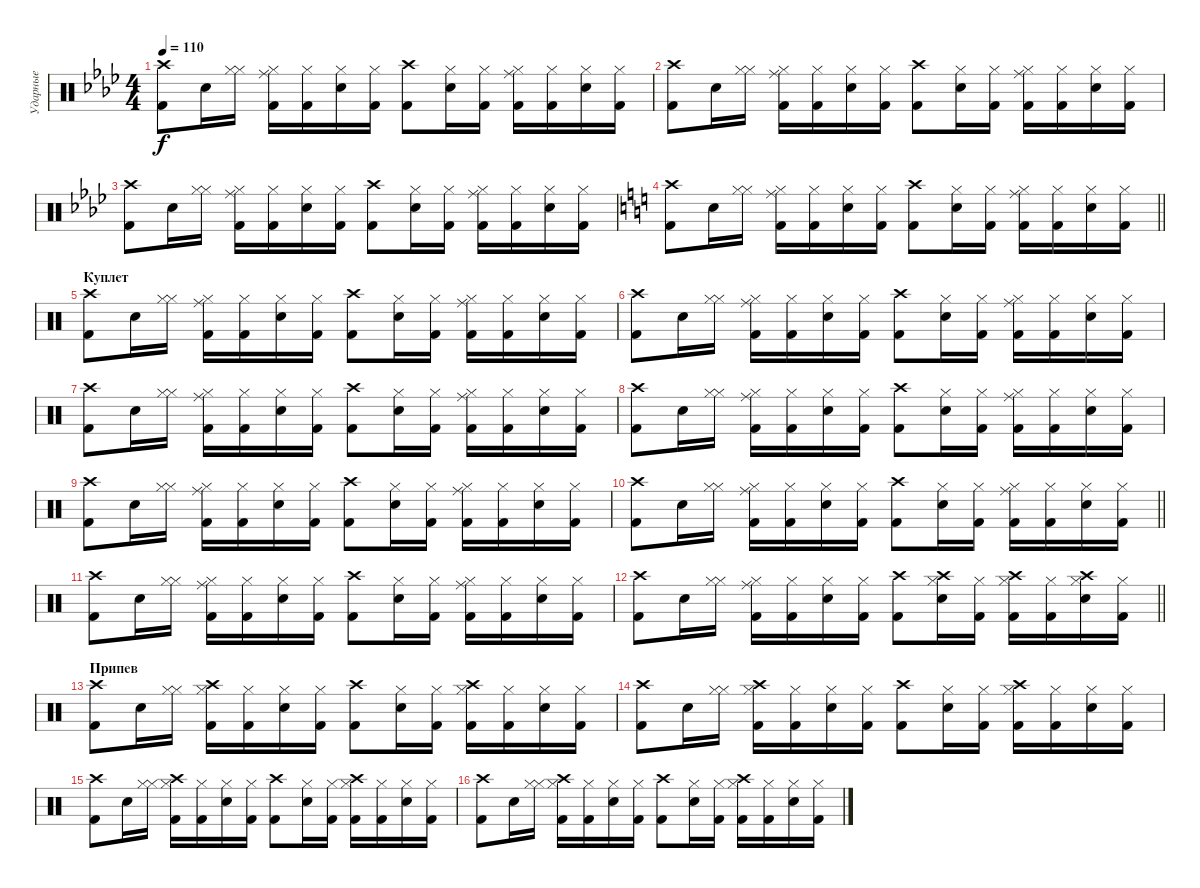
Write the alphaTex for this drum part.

\track ("Ударные" "Ударные") {instrument percussion}
\staff {score}
\articulation defaults
\ts (4 4)
\tempo 110
\clef neutral
\ks fminor
("Crash high (hit)" "Kick (hit) 2").8{dy f} "Snare (hit) 2".16 ("Hi-Hat (closed)" "Hi-Hat (closed)").16 ("Ride (middle)" "Hi-Hat (closed)" "Kick (hit) 2").16 ("Hi-Hat (closed)" "Kick (hit) 2").16 ("Hi-Hat (closed)" "Electric Snare (hit)").16 ("Hi-Hat (closed)" "Kick (hit) 2").16 ("Crash high (hit)" "Kick (hit) 2").8 ("Hi-Hat (closed)" "Snare (hit) 2").16 ("Hi-Hat (closed)" "Kick (hit) 2").16 ("Ride (middle)" "Hi-Hat (closed)" "Kick (hit) 2").16 ("Hi-Hat (closed)" "Kick (hit) 2").16 ("Hi-Hat (closed)" "Snare (hit) 2").16 ("Hi-Hat (closed)" "Kick (hit) 2").16 |
("Crash high (hit)" "Kick (hit) 2").8 "Snare (hit) 2".16 ("Hi-Hat (closed)" "Hi-Hat (closed)").16 ("Ride (middle)" "Hi-Hat (closed)" "Kick (hit) 2").16 ("Hi-Hat (closed)" "Kick (hit) 2").16 ("Hi-Hat (closed)" "Snare (hit) 2").16 ("Hi-Hat (closed)" "Kick (hit) 2").16 ("Crash high (hit)" "Kick (hit) 2").8 ("Hi-Hat (closed)" "Snare (hit) 2").16 ("Hi-Hat (closed)" "Kick (hit) 2").16 ("Ride (middle)" "Hi-Hat (closed)" "Kick (hit) 2").16 ("Hi-Hat (closed)" "Kick (hit) 2").16 ("Hi-Hat (closed)" "Snare (hit) 2").16 ("Hi-Hat (closed)" "Kick (hit) 2").16 |
("Crash high (hit)" "Kick (hit) 2").8 "Snare (hit) 2".16 ("Hi-Hat (closed)" "Hi-Hat (closed)").16 ("Ride (middle)" "Hi-Hat (closed)" "Kick (hit) 2").16 ("Hi-Hat (closed)" "Kick (hit) 2").16 ("Hi-Hat (closed)" "Snare (hit) 2").16 ("Hi-Hat (closed)" "Kick (hit) 2").16 ("Crash high (hit)" "Kick (hit) 2").8 ("Hi-Hat (closed)" "Snare (hit) 2").16 ("Hi-Hat (closed)" "Kick (hit) 2").16 ("Ride (middle)" "Hi-Hat (closed)" "Kick (hit) 2").16 ("Hi-Hat (closed)" "Kick (hit) 2").16 ("Hi-Hat (closed)" "Snare (hit) 2").16 ("Hi-Hat (closed)" "Kick (hit) 2").16 |
\barLineRight lightlight
\ks c
("Crash high (hit)" "Kick (hit) 2").8 "Snare (hit) 2".16 ("Hi-Hat (closed)" "Hi-Hat (closed)").16 ("Ride (middle)" "Hi-Hat (closed)" "Kick (hit) 2").16 ("Hi-Hat (closed)" "Kick (hit) 2").16 ("Hi-Hat (closed)" "Snare (hit) 2").16 ("Hi-Hat (closed)" "Kick (hit) 2").16 ("Crash high (hit)" "Kick (hit) 2").8 ("Hi-Hat (closed)" "Snare (hit) 2").16 ("Hi-Hat (closed)" "Kick (hit) 2").16 ("Ride (middle)" "Hi-Hat (closed)" "Kick (hit) 2").16 ("Hi-Hat (closed)" "Kick (hit) 2").16 ("Hi-Hat (closed)" "Snare (hit) 2").16 ("Hi-Hat (closed)" "Kick (hit) 2").16 |
\section ("" "Куплет")
("Crash high (hit)" "Kick (hit) 2").8 "Snare (hit) 2".16 ("Hi-Hat (closed)" "Hi-Hat (closed)").16 ("Ride (middle)" "Hi-Hat (closed)" "Kick (hit) 2").16 ("Hi-Hat (closed)" "Kick (hit) 2").16 ("Hi-Hat (closed)" "Snare (hit) 2").16 ("Hi-Hat (closed)" "Kick (hit) 2").16 ("Crash high (hit)" "Kick (hit) 2").8 ("Hi-Hat (closed)" "Snare (hit) 2").16 ("Hi-Hat (closed)" "Kick (hit) 2").16 ("Ride (middle)" "Hi-Hat (closed)" "Kick (hit) 2").16 ("Hi-Hat (closed)" "Kick (hit) 2").16 ("Hi-Hat (closed)" "Snare (hit) 2").16 ("Hi-Hat (closed)" "Kick (hit) 2").16 |
("Crash high (hit)" "Kick (hit) 2").8 "Snare (hit) 2".16 ("Hi-Hat (closed)" "Hi-Hat (closed)").16 ("Ride (middle)" "Hi-Hat (closed)" "Kick (hit) 2").16 ("Hi-Hat (closed)" "Kick (hit) 2").16 ("Hi-Hat (closed)" "Snare (hit) 2").16 ("Hi-Hat (closed)" "Kick (hit) 2").16 ("Crash high (hit)" "Kick (hit) 2").8 ("Hi-Hat (closed)" "Snare (hit) 2").16 ("Hi-Hat (closed)" "Kick (hit) 2").16 ("Ride (middle)" "Hi-Hat (closed)" "Kick (hit) 2").16 ("Hi-Hat (closed)" "Kick (hit) 2").16 ("Hi-Hat (closed)" "Snare (hit) 2").16 ("Hi-Hat (closed)" "Kick (hit) 2").16 |
("Crash high (hit)" "Kick (hit) 2").8 "Snare (hit) 2".16 ("Hi-Hat (closed)" "Hi-Hat (closed)").16 ("Ride (middle)" "Hi-Hat (closed)" "Kick (hit) 2").16 ("Hi-Hat (closed)" "Kick (hit) 2").16 ("Hi-Hat (closed)" "Snare (hit) 2").16 ("Hi-Hat (closed)" "Kick (hit) 2").16 ("Crash high (hit)" "Kick (hit) 2").8 ("Hi-Hat (closed)" "Snare (hit) 2").16 ("Hi-Hat (closed)" "Kick (hit) 2").16 ("Ride (middle)" "Hi-Hat (closed)" "Kick (hit) 2").16 ("Hi-Hat (closed)" "Kick (hit) 2").16 ("Hi-Hat (closed)" "Snare (hit) 2").16 ("Hi-Hat (closed)" "Kick (hit) 2").16 |
("Crash high (hit)" "Kick (hit) 2").8 "Snare (hit) 2".16 ("Hi-Hat (closed)" "Hi-Hat (closed)").16 ("Ride (middle)" "Hi-Hat (closed)" "Kick (hit) 2").16 ("Hi-Hat (closed)" "Kick (hit) 2").16 ("Hi-Hat (closed)" "Snare (hit) 2").16 ("Hi-Hat (closed)" "Kick (hit) 2").16 ("Crash high (hit)" "Kick (hit) 2").8 ("Hi-Hat (closed)" "Snare (hit) 2").16 ("Hi-Hat (closed)" "Kick (hit) 2").16 ("Ride (middle)" "Hi-Hat (closed)" "Kick (hit) 2").16 ("Hi-Hat (closed)" "Kick (hit) 2").16 ("Hi-Hat (closed)" "Snare (hit) 2").16 ("Hi-Hat (closed)" "Kick (hit) 2").16 |
("Crash high (hit)" "Kick (hit) 2").8 "Snare (hit) 2".16 ("Hi-Hat (closed)" "Hi-Hat (closed)").16 ("Ride (middle)" "Hi-Hat (closed)" "Kick (hit) 2").16 ("Hi-Hat (closed)" "Kick (hit) 2").16 ("Hi-Hat (closed)" "Snare (hit) 2").16 ("Hi-Hat (closed)" "Kick (hit) 2").16 ("Crash high (hit)" "Kick (hit) 2").8 ("Hi-Hat (closed)" "Snare (hit) 2").16 ("Hi-Hat (closed)" "Kick (hit) 2").16 ("Ride (middle)" "Hi-Hat (closed)" "Kick (hit) 2").16 ("Hi-Hat (closed)" "Kick (hit) 2").16 ("Hi-Hat (closed)" "Snare (hit) 2").16 ("Hi-Hat (closed)" "Kick (hit) 2").16 |
\barLineRight lightlight
("Crash high (hit)" "Kick (hit) 2").8 "Snare (hit) 2".16 ("Hi-Hat (closed)" "Hi-Hat (closed)").16 ("Ride (middle)" "Hi-Hat (closed)" "Kick (hit) 2").16 ("Hi-Hat (closed)" "Kick (hit) 2").16 ("Hi-Hat (closed)" "Snare (hit) 2").16 ("Hi-Hat (closed)" "Kick (hit) 2").16 ("Crash high (hit)" "Kick (hit) 2").8 ("Hi-Hat (closed)" "Snare (hit) 2").16 ("Hi-Hat (closed)" "Kick (hit) 2").16 ("Ride (middle)" "Hi-Hat (closed)" "Kick (hit) 2").16 ("Hi-Hat (closed)" "Kick (hit) 2").16 ("Hi-Hat (closed)" "Snare (hit) 2").16 ("Hi-Hat (closed)" "Kick (hit) 2").16 |
("Crash high (hit)" "Kick (hit) 2").8 "Snare (hit) 2".16 ("Hi-Hat (closed)" "Hi-Hat (closed)").16 ("Ride (middle)" "Hi-Hat (closed)" "Kick (hit) 2").16 ("Hi-Hat (closed)" "Kick (hit) 2").16 ("Hi-Hat (closed)" "Snare (hit) 2").16 ("Hi-Hat (closed)" "Kick (hit) 2").16 ("Crash high (hit)" "Kick (hit) 2").8 ("Hi-Hat (closed)" "Snare (hit) 2").16 ("Hi-Hat (closed)" "Kick (hit) 2").16 ("Ride (middle)" "Hi-Hat (closed)" "Kick (hit) 2").16 ("Hi-Hat (closed)" "Kick (hit) 2").16 ("Hi-Hat (closed)" "Snare (hit) 2").16 ("Hi-Hat (closed)" "Kick (hit) 2").16 |
\barLineRight lightlight
("Crash high (hit)" "Kick (hit) 2").8 "Snare (hit) 2".16 ("Hi-Hat (closed)" "Hi-Hat (closed)").16 ("Ride (middle)" "Hi-Hat (closed)" "Kick (hit) 2").16 ("Hi-Hat (closed)" "Kick (hit) 2").16 ("Hi-Hat (closed)" "Snare (hit) 2").16 ("Hi-Hat (closed)" "Kick (hit) 2").16 ("Crash high (hit)" "Kick (hit) 2").8 ("Crash high (hit)" "Hi-Hat (closed)" "Snare (hit) 2").16 ("Hi-Hat (closed)" "Kick (hit) 2").16 ("Crash high (hit)" "Hi-Hat (closed)" "Kick (hit) 2").16 ("Hi-Hat (closed)" "Kick (hit) 2").16 ("Crash high (hit)" "Hi-Hat (closed)" "Snare (hit) 2").16 ("Hi-Hat (closed)" "Kick (hit) 2").16 |
\section ("" "Припев")
("Crash high (hit)" "Kick (hit) 2").8 "Snare (hit) 2".16 ("Hi-Hat (closed)" "Hi-Hat (closed)").16 ("Crash high (hit)" "Hi-Hat (closed)" "Kick (hit) 2").16 ("Hi-Hat (closed)" "Kick (hit) 2").16 ("Hi-Hat (closed)" "Snare (hit) 2").16 ("Hi-Hat (closed)" "Kick (hit) 2").16 ("Crash high (hit)" "Kick (hit) 2").8 ("Hi-Hat (closed)" "Snare (hit) 2").16 ("Hi-Hat (closed)" "Kick (hit) 2").16 ("Crash high (hit)" "Hi-Hat (closed)" "Kick (hit) 2").16 ("Hi-Hat (closed)" "Kick (hit) 2").16 ("Hi-Hat (closed)" "Snare (hit) 2").16 ("Hi-Hat (closed)" "Kick (hit) 2").16 |
("Crash high (hit)" "Kick (hit) 2").8 "Snare (hit) 2".16 ("Hi-Hat (closed)" "Hi-Hat (closed)").16 ("Crash high (hit)" "Hi-Hat (closed)" "Kick (hit) 2").16 ("Hi-Hat (closed)" "Kick (hit) 2").16 ("Hi-Hat (closed)" "Snare (hit) 2").16 ("Hi-Hat (closed)" "Kick (hit) 2").16 ("Crash high (hit)" "Kick (hit) 2").8 ("Hi-Hat (closed)" "Snare (hit) 2").16 ("Hi-Hat (closed)" "Kick (hit) 2").16 ("Crash high (hit)" "Hi-Hat (closed)" "Kick (hit) 2").16 ("Hi-Hat (closed)" "Kick (hit) 2").16 ("Hi-Hat (closed)" "Snare (hit) 2").16 ("Hi-Hat (closed)" "Kick (hit) 2").16 |
("Crash high (hit)" "Kick (hit) 2").8 "Snare (hit) 2".16 ("Hi-Hat (closed)" "Hi-Hat (closed)").16 ("Crash high (hit)" "Hi-Hat (closed)" "Kick (hit) 2").16 ("Hi-Hat (closed)" "Kick (hit) 2").16 ("Hi-Hat (closed)" "Snare (hit) 2").16 ("Hi-Hat (closed)" "Kick (hit) 2").16 ("Crash high (hit)" "Kick (hit) 2").8 ("Hi-Hat (closed)" "Snare (hit) 2").16 ("Hi-Hat (closed)" "Kick (hit) 2").16 ("Crash high (hit)" "Hi-Hat (closed)" "Kick (hit) 2").16 ("Hi-Hat (closed)" "Kick (hit) 2").16 ("Hi-Hat (closed)" "Snare (hit) 2").16 ("Hi-Hat (closed)" "Kick (hit) 2").16 |
("Crash high (hit)" "Kick (hit) 2").8 "Snare (hit) 2".16 ("Hi-Hat (closed)" "Hi-Hat (closed)").16 ("Crash high (hit)" "Hi-Hat (closed)" "Kick (hit) 2").16 ("Hi-Hat (closed)" "Kick (hit) 2").16 ("Hi-Hat (closed)" "Snare (hit) 2").16 ("Hi-Hat (closed)" "Kick (hit) 2").16 ("Crash high (hit)" "Kick (hit) 2").8 ("Hi-Hat (closed)" "Snare (hit) 2").16 ("Hi-Hat (closed)" "Kick (hit) 2").16 ("Crash high (hit)" "Hi-Hat (closed)" "Kick (hit) 2").16 ("Hi-Hat (closed)" "Kick (hit) 2").16 ("Hi-Hat (closed)" "Snare (hit) 2").16 ("Hi-Hat (closed)" "Kick (hit) 2").16
